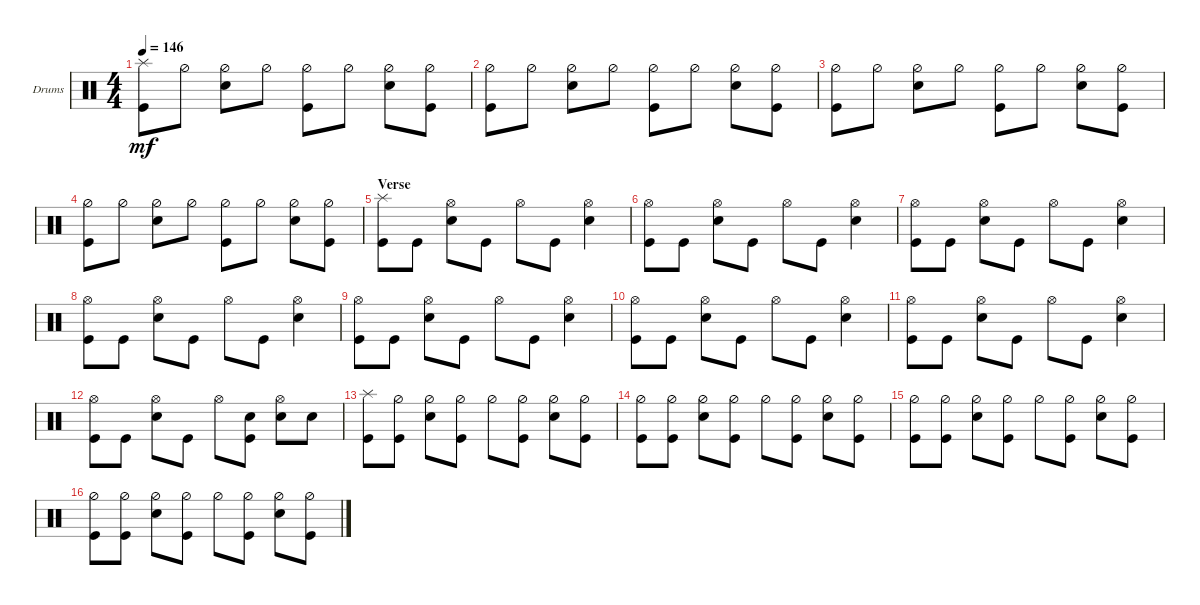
\defaultSystemsLayout 4
\bracketExtendMode groupsimilarinstruments
\firstSystemTrackNameOrientation horizontal
\otherSystemsTrackNameOrientation horizontal
\track ("Drums" "Drums") {instrument percussion}
\staff {score}
\articulation defaults
\ts (4 4)
\tempo 146
\clef neutral
\ks c
("Kick (hit)" "Splash (hit)").8{dy mf} "Hi-Hat (half)".8 ("Snare (hit) 2" "Hi-Hat (half)").8 "Hi-Hat (half)".8 ("Hi-Hat (half)" "Kick (hit)").8 "Hi-Hat (half)".8 ("Hi-Hat (half)" "Snare (hit) 2").8 ("Hi-Hat (half)" "Kick (hit)").8 |
("Kick (hit)" "Hi-Hat (half)").8 "Hi-Hat (half)".8 ("Snare (hit) 2" "Hi-Hat (half)").8 "Hi-Hat (half)".8 ("Hi-Hat (half)" "Kick (hit)").8 "Hi-Hat (half)".8 ("Hi-Hat (half)" "Snare (hit) 2").8 ("Hi-Hat (half)" "Kick (hit)").8 |
("Kick (hit)" "Hi-Hat (half)").8 "Hi-Hat (half)".8 ("Snare (hit) 2" "Hi-Hat (half)").8 "Hi-Hat (half)".8 ("Hi-Hat (half)" "Kick (hit)").8 "Hi-Hat (half)".8 ("Hi-Hat (half)" "Snare (hit) 2").8 ("Hi-Hat (half)" "Kick (hit)").8 |
("Kick (hit)" "Hi-Hat (half)").8 "Hi-Hat (half)".8 ("Snare (hit) 2" "Hi-Hat (half)").8 "Hi-Hat (half)".8 ("Hi-Hat (half)" "Kick (hit)").8 "Hi-Hat (half)".8 ("Hi-Hat (half)" "Snare (hit) 2").8 ("Hi-Hat (half)" "Kick (hit)").8 |
\section ("" "Verse")
("Kick (hit)" "Splash (hit)").8 "Kick (hit)".8 ("Snare (hit) 2" "Hi-Hat (open)").8 "Kick (hit)".8 "Hi-Hat (open)".8 "Kick (hit)".8 ("Snare (hit) 2" "Hi-Hat (open)").4 |
("Kick (hit)" "Hi-Hat (open)").8 "Kick (hit)".8 ("Snare (hit) 2" "Hi-Hat (open)").8 "Kick (hit)".8 "Hi-Hat (open)".8 "Kick (hit)".8 ("Snare (hit) 2" "Hi-Hat (open)").4 |
("Kick (hit)" "Hi-Hat (open)").8 "Kick (hit)".8 ("Snare (hit) 2" "Hi-Hat (open)").8 "Kick (hit)".8 "Hi-Hat (open)".8 "Kick (hit)".8 ("Snare (hit) 2" "Hi-Hat (open)").4 |
("Kick (hit)" "Hi-Hat (open)").8 "Kick (hit)".8 ("Snare (hit) 2" "Hi-Hat (open)").8 "Kick (hit)".8 "Hi-Hat (open)".8 "Kick (hit)".8 ("Snare (hit) 2" "Hi-Hat (open)").4 |
("Kick (hit)" "Hi-Hat (open)").8 "Kick (hit)".8 ("Snare (hit) 2" "Hi-Hat (open)").8 "Kick (hit)".8 "Hi-Hat (open)".8 "Kick (hit)".8 ("Snare (hit) 2" "Hi-Hat (open)").4 |
("Kick (hit)" "Hi-Hat (open)").8 "Kick (hit)".8 ("Snare (hit) 2" "Hi-Hat (open)").8 "Kick (hit)".8 "Hi-Hat (open)".8 "Kick (hit)".8 ("Snare (hit) 2" "Hi-Hat (open)").4 |
("Kick (hit)" "Hi-Hat (open)").8 "Kick (hit)".8 ("Snare (hit) 2" "Hi-Hat (open)").8 "Kick (hit)".8 "Hi-Hat (open)".8 "Kick (hit)".8 ("Snare (hit) 2" "Hi-Hat (open)").4 |
("Kick (hit)" "Hi-Hat (open)").8 "Kick (hit)".8 ("Snare (hit) 2" "Hi-Hat (open)").8 "Kick (hit)".8 "Hi-Hat (open)".8 ("Kick (hit)" "Snare (hit) 2").8 ("Snare (hit) 2" "Hi-Hat (open)").8 "Snare (hit) 2".8 |
("Kick (hit)" "Splash (hit)").8 ("Kick (hit)" "Hi-Hat (half)").8 ("Snare (hit) 2" "Hi-Hat (half)").8 ("Kick (hit)" "Hi-Hat (half)").8 "Hi-Hat (half)".8 ("Kick (hit)" "Hi-Hat (half)").8 ("Snare (hit) 2" "Hi-Hat (half)").8 ("Kick (hit)" "Hi-Hat (half)").8 |
("Kick (hit)" "Hi-Hat (half)").8 ("Kick (hit)" "Hi-Hat (half)").8 ("Snare (hit) 2" "Hi-Hat (half)").8 ("Kick (hit)" "Hi-Hat (half)").8 "Hi-Hat (half)".8 ("Kick (hit)" "Hi-Hat (half)").8 ("Snare (hit) 2" "Hi-Hat (half)").8 ("Kick (hit)" "Hi-Hat (half)").8 |
("Kick (hit)" "Hi-Hat (half)").8 ("Kick (hit)" "Hi-Hat (half)").8 ("Snare (hit) 2" "Hi-Hat (half)").8 ("Kick (hit)" "Hi-Hat (half)").8 "Hi-Hat (half)".8 ("Kick (hit)" "Hi-Hat (half)").8 ("Snare (hit) 2" "Hi-Hat (half)").8 ("Kick (hit)" "Hi-Hat (half)").8 |
("Kick (hit)" "Hi-Hat (half)").8 ("Kick (hit)" "Hi-Hat (half)").8 ("Snare (hit) 2" "Hi-Hat (half)").8 ("Kick (hit)" "Hi-Hat (half)").8 "Hi-Hat (half)".8 ("Kick (hit)" "Hi-Hat (half)").8 ("Snare (hit) 2" "Hi-Hat (half)").8 ("Kick (hit)" "Hi-Hat (half)").8
